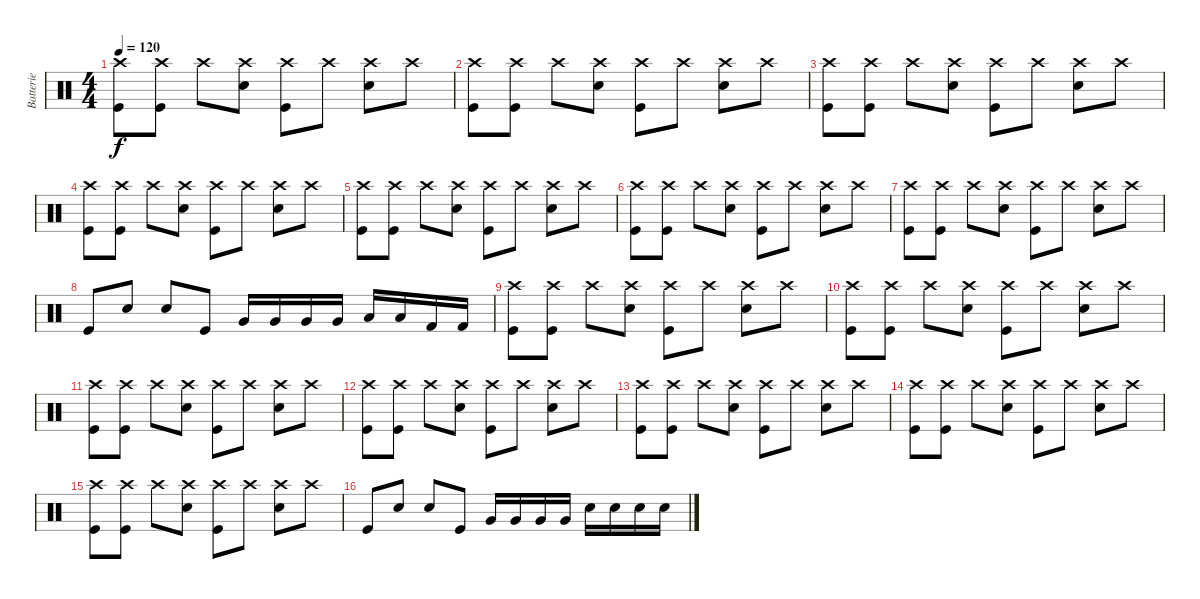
\track ("Batterie" "Batterie") {instrument percussion}
\staff {score}
\articulation defaults
\ts (4 4)
\tempo 120
\clef neutral
\ks c
("Crash high (hit)" "Kick (hit)").8{dy f} ("Crash high (hit)" "Kick (hit)").8 "Crash high (hit)".8 ("Crash high (hit)" "Snare (hit) 2").8 ("Crash high (hit)" "Kick (hit)").8 "Crash high (hit)".8 ("Crash high (hit)" "Snare (hit) 2").8 "Crash high (hit)".8 |
("Crash high (hit)" "Kick (hit)").8 ("Crash high (hit)" "Kick (hit)").8 "Crash high (hit)".8 ("Crash high (hit)" "Snare (hit) 2").8 ("Crash high (hit)" "Kick (hit)").8 "Crash high (hit)".8 ("Crash high (hit)" "Snare (hit) 2").8 "Crash high (hit)".8 |
("Crash high (hit)" "Kick (hit)").8 ("Crash high (hit)" "Kick (hit)").8 "Crash high (hit)".8 ("Crash high (hit)" "Snare (hit) 2").8 ("Crash high (hit)" "Kick (hit)").8 "Crash high (hit)".8 ("Crash high (hit)" "Snare (hit) 2").8 "Crash high (hit)".8 |
("Crash high (hit)" "Kick (hit)").8 ("Crash high (hit)" "Kick (hit)").8 "Crash high (hit)".8 ("Crash high (hit)" "Snare (hit) 2").8 ("Crash high (hit)" "Kick (hit)").8 "Crash high (hit)".8 ("Crash high (hit)" "Snare (hit) 2").8 "Crash high (hit)".8 |
("Crash high (hit)" "Kick (hit)").8 ("Crash high (hit)" "Kick (hit)").8 "Crash high (hit)".8 ("Crash high (hit)" "Snare (hit) 2").8 ("Crash high (hit)" "Kick (hit)").8 "Crash high (hit)".8 ("Crash high (hit)" "Snare (hit) 2").8 "Crash high (hit)".8 |
("Crash high (hit)" "Kick (hit)").8 ("Crash high (hit)" "Kick (hit)").8 "Crash high (hit)".8 ("Crash high (hit)" "Snare (hit) 2").8 ("Crash high (hit)" "Kick (hit)").8 "Crash high (hit)".8 ("Crash high (hit)" "Snare (hit) 2").8 "Crash high (hit)".8 |
("Crash high (hit)" "Kick (hit)").8 ("Crash high (hit)" "Kick (hit)").8 "Crash high (hit)".8 ("Crash high (hit)" "Snare (hit) 2").8 ("Crash high (hit)" "Kick (hit)").8 "Crash high (hit)".8 ("Crash high (hit)" "Snare (hit) 2").8 "Crash high (hit)".8 |
"Kick (hit)".8 "Snare (hit) 2".8 "Snare (hit) 2".8 "Kick (hit)".8 "Very Low Tom (hit)".16 "Very Low Tom (hit)".16 "Very Low Tom (hit)".16 "Very Low Tom (hit)".16 "Low Floor Tom (hit)".16 "Low Floor Tom (hit)".16 "Kick (hit) 2".16 "Kick (hit) 2".16 |
("Crash high (hit)" "Kick (hit)").8 ("Crash high (hit)" "Kick (hit)").8 "Crash high (hit)".8 ("Crash high (hit)" "Snare (hit) 2").8 ("Crash high (hit)" "Kick (hit)").8 "Crash high (hit)".8 ("Crash high (hit)" "Snare (hit) 2").8 "Crash high (hit)".8 |
("Crash high (hit)" "Kick (hit)").8 ("Crash high (hit)" "Kick (hit)").8 "Crash high (hit)".8 ("Crash high (hit)" "Snare (hit) 2").8 ("Crash high (hit)" "Kick (hit)").8 "Crash high (hit)".8 ("Crash high (hit)" "Snare (hit) 2").8 "Crash high (hit)".8 |
("Crash high (hit)" "Kick (hit)").8 ("Crash high (hit)" "Kick (hit)").8 "Crash high (hit)".8 ("Crash high (hit)" "Snare (hit) 2").8 ("Crash high (hit)" "Kick (hit)").8 "Crash high (hit)".8 ("Crash high (hit)" "Snare (hit) 2").8 "Crash high (hit)".8 |
("Crash high (hit)" "Kick (hit)").8 ("Crash high (hit)" "Kick (hit)").8 "Crash high (hit)".8 ("Crash high (hit)" "Snare (hit) 2").8 ("Crash high (hit)" "Kick (hit)").8 "Crash high (hit)".8 ("Crash high (hit)" "Snare (hit) 2").8 "Crash high (hit)".8 |
("Crash high (hit)" "Kick (hit)").8 ("Crash high (hit)" "Kick (hit)").8 "Crash high (hit)".8 ("Crash high (hit)" "Snare (hit) 2").8 ("Crash high (hit)" "Kick (hit)").8 "Crash high (hit)".8 ("Crash high (hit)" "Snare (hit) 2").8 "Crash high (hit)".8 |
("Crash high (hit)" "Kick (hit)").8 ("Crash high (hit)" "Kick (hit)").8 "Crash high (hit)".8 ("Crash high (hit)" "Snare (hit) 2").8 ("Crash high (hit)" "Kick (hit)").8 "Crash high (hit)".8 ("Crash high (hit)" "Snare (hit) 2").8 "Crash high (hit)".8 |
("Crash high (hit)" "Kick (hit)").8 ("Crash high (hit)" "Kick (hit)").8 "Crash high (hit)".8 ("Crash high (hit)" "Snare (hit) 2").8 ("Crash high (hit)" "Kick (hit)").8 "Crash high (hit)".8 ("Crash high (hit)" "Snare (hit) 2").8 "Crash high (hit)".8 |
"Kick (hit)".8 "Snare (hit) 2".8 "Snare (hit) 2".8 "Kick (hit)".8 "Very Low Tom (hit)".16 "Very Low Tom (hit)".16 "Very Low Tom (hit)".16 "Very Low Tom (hit)".16 "Electric Snare (hit)".16 "Electric Snare (hit)".16 "Electric Snare (hit)".16 "Electric Snare (hit)".16
